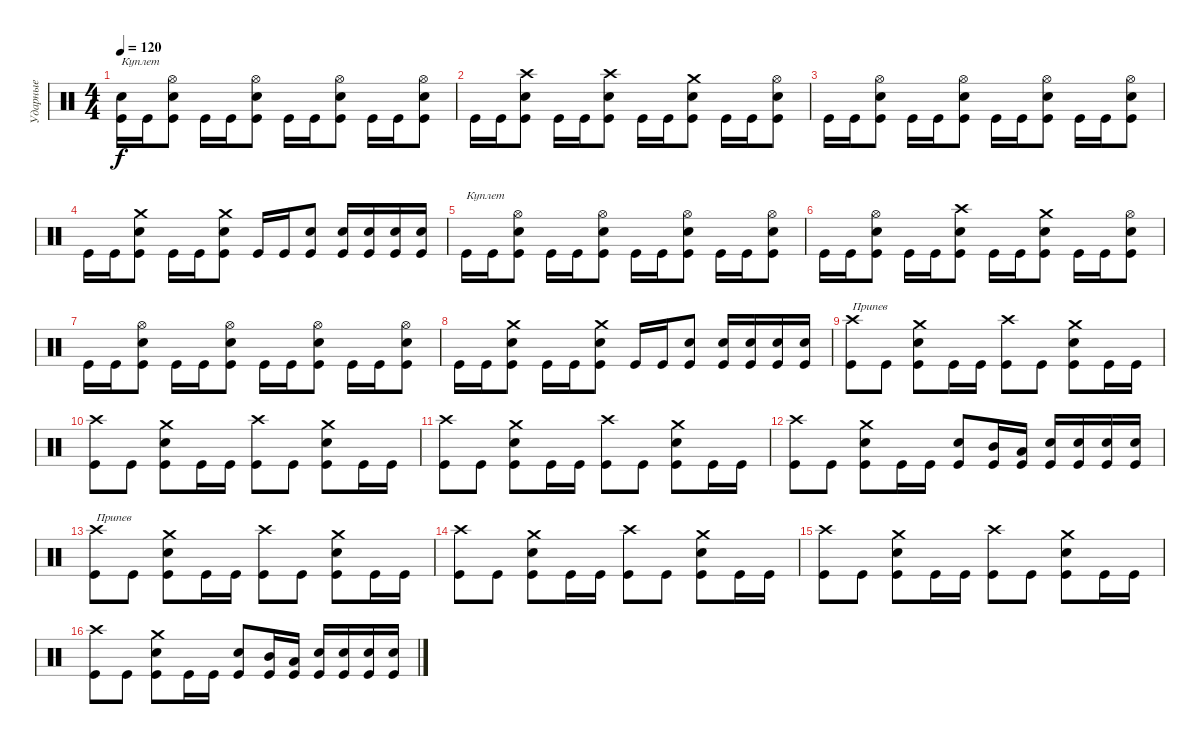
\track ("Ударные" "Ударные") {instrument percussion}
\staff {score}
\articulation defaults
\ts (4 4)
\tempo 120
\clef neutral
\ks c
("Snare (hit) 2" "Kick (hit)").16{txt "Куплет" dy f} "Kick (hit)".16 ("Hi-Hat (open)" "Snare (hit) 2" "Kick (hit)").8 "Kick (hit)".16 "Kick (hit)".16 ("Hi-Hat (open)" "Snare (hit) 2" "Kick (hit)").8 "Kick (hit)".16 "Kick (hit)".16 ("Hi-Hat (open)" "Snare (hit) 2" "Kick (hit)").8 "Kick (hit)".16 "Kick (hit)".16 ("Hi-Hat (open)" "Snare (hit) 2" "Kick (hit)").8 |
"Kick (hit)".16 "Kick (hit)".16 ("Crash high (hit)" "Snare (hit) 2" "Kick (hit)").8 "Kick (hit)".16 "Kick (hit)".16 ("Crash high (hit)" "Snare (hit) 2" "Kick (hit)").8 "Kick (hit)".16 "Kick (hit)".16 ("Crash medium (hit)" "Snare (hit) 2" "Kick (hit)").8 "Kick (hit)".16 "Kick (hit)".16 ("Hi-Hat (open)" "Snare (hit) 2" "Kick (hit)").8 |
"Kick (hit)".16 "Kick (hit)".16 ("Hi-Hat (open)" "Snare (hit) 2" "Kick (hit)").8 "Kick (hit)".16 "Kick (hit)".16 ("Hi-Hat (open)" "Snare (hit) 2" "Kick (hit)").8 "Kick (hit)".16 "Kick (hit)".16 ("Hi-Hat (open)" "Snare (hit) 2" "Kick (hit)").8 "Kick (hit)".16 "Kick (hit)".16 ("Hi-Hat (open)" "Snare (hit) 2" "Kick (hit)").8 |
"Kick (hit)".16 "Kick (hit)".16 ("Crash medium (hit)" "Snare (hit) 2" "Kick (hit)").8 "Kick (hit)".16 "Kick (hit)".16 ("Crash medium (hit)" "Snare (hit) 2" "Kick (hit)").8 "Kick (hit)".16 "Kick (hit)".16 ("Snare (hit) 2" "Kick (hit)").8 ("Snare (hit) 2" "Kick (hit)").16 ("Snare (hit) 2" "Kick (hit)").16 ("Snare (hit) 2" "Kick (hit)").16 ("Snare (hit) 2" "Kick (hit)").16 |
"Kick (hit)".16{txt "Куплет"} "Kick (hit)".16 ("Hi-Hat (open)" "Snare (hit) 2" "Kick (hit)").8 "Kick (hit)".16 "Kick (hit)".16 ("Hi-Hat (open)" "Snare (hit) 2" "Kick (hit)").8 "Kick (hit)".16 "Kick (hit)".16 ("Hi-Hat (open)" "Snare (hit) 2" "Kick (hit)").8 "Kick (hit)".16 "Kick (hit)".16 ("Hi-Hat (open)" "Snare (hit) 2" "Kick (hit)").8 |
"Kick (hit)".16 "Kick (hit)".16 ("Hi-Hat (open)" "Snare (hit) 2" "Kick (hit)").8 "Kick (hit)".16 "Kick (hit)".16 ("Crash high (hit)" "Snare (hit) 2" "Kick (hit)").8 "Kick (hit)".16 "Kick (hit)".16 ("Crash medium (hit)" "Snare (hit) 2" "Kick (hit)").8 "Kick (hit)".16 "Kick (hit)".16 ("Hi-Hat (open)" "Snare (hit) 2" "Kick (hit)").8 |
"Kick (hit)".16 "Kick (hit)".16 ("Hi-Hat (open)" "Snare (hit) 2" "Kick (hit)").8 "Kick (hit)".16 "Kick (hit)".16 ("Hi-Hat (open)" "Snare (hit) 2" "Kick (hit)").8 "Kick (hit)".16 "Kick (hit)".16 ("Hi-Hat (open)" "Snare (hit) 2" "Kick (hit)").8 "Kick (hit)".16 "Kick (hit)".16 ("Hi-Hat (open)" "Snare (hit) 2" "Kick (hit)").8 |
"Kick (hit)".16 "Kick (hit)".16 ("Crash medium (hit)" "Snare (hit) 2" "Kick (hit)").8 "Kick (hit)".16 "Kick (hit)".16 ("Crash medium (hit)" "Snare (hit) 2" "Kick (hit)").8 "Kick (hit)".16 "Kick (hit)".16 ("Snare (hit) 2" "Kick (hit)").8 ("Snare (hit) 2" "Kick (hit)").16 ("Snare (hit) 2" "Kick (hit)").16 ("Snare (hit) 2" "Kick (hit)").16 ("Snare (hit) 2" "Kick (hit)").16 |
("Crash high (hit)" "Kick (hit)").8{txt "Припев"} "Kick (hit)".8 ("Crash medium (hit)" "Snare (hit) 2" "Kick (hit)").8 "Kick (hit)".16 "Kick (hit)".16 ("Crash high (hit)" "Kick (hit)").8 "Kick (hit)".8 ("Crash medium (hit)" "Snare (hit) 2" "Kick (hit)").8 "Kick (hit)".16 "Kick (hit)".16 |
("Crash high (hit)" "Kick (hit)").8 "Kick (hit)".8 ("Crash medium (hit)" "Snare (hit) 2" "Kick (hit)").8 "Kick (hit)".16 "Kick (hit)".16 ("Crash high (hit)" "Kick (hit)").8 "Kick (hit)".8 ("Crash medium (hit)" "Snare (hit) 2" "Kick (hit)").8 "Kick (hit)".16 "Kick (hit)".16 |
("Crash high (hit)" "Kick (hit)").8 "Kick (hit)".8 ("Crash medium (hit)" "Snare (hit) 2" "Kick (hit)").8 "Kick (hit)".16 "Kick (hit)".16 ("Crash high (hit)" "Kick (hit)").8 "Kick (hit)".8 ("Crash medium (hit)" "Snare (hit) 2" "Kick (hit)").8 "Kick (hit)".16 "Kick (hit)".16 |
("Crash high (hit)" "Kick (hit)").8 "Kick (hit)".8 ("Crash medium (hit)" "Snare (hit) 2" "Kick (hit)").8 "Kick (hit)".16 "Kick (hit)".16 ("Snare (hit) 2" "Kick (hit)").8 ("Mid Tom (hit)" "Kick (hit)").16 ("Low Tom (hit)" "Kick (hit)").16 ("Snare (hit) 2" "Kick (hit)").16 ("Snare (hit) 2" "Kick (hit)").16 ("Snare (hit) 2" "Kick (hit)").16 ("Snare (hit) 2" "Kick (hit)").16 |
("Crash high (hit)" "Kick (hit)").8{txt "Припев"} "Kick (hit)".8 ("Crash medium (hit)" "Snare (hit) 2" "Kick (hit)").8 "Kick (hit)".16 "Kick (hit)".16 ("Crash high (hit)" "Kick (hit)").8 "Kick (hit)".8 ("Crash medium (hit)" "Snare (hit) 2" "Kick (hit)").8 "Kick (hit)".16 "Kick (hit)".16 |
("Crash high (hit)" "Kick (hit)").8 "Kick (hit)".8 ("Crash medium (hit)" "Snare (hit) 2" "Kick (hit)").8 "Kick (hit)".16 "Kick (hit)".16 ("Crash high (hit)" "Kick (hit)").8 "Kick (hit)".8 ("Crash medium (hit)" "Snare (hit) 2" "Kick (hit)").8 "Kick (hit)".16 "Kick (hit)".16 |
("Crash high (hit)" "Kick (hit)").8 "Kick (hit)".8 ("Crash medium (hit)" "Snare (hit) 2" "Kick (hit)").8 "Kick (hit)".16 "Kick (hit)".16 ("Crash high (hit)" "Kick (hit)").8 "Kick (hit)".8 ("Crash medium (hit)" "Snare (hit) 2" "Kick (hit)").8 "Kick (hit)".16 "Kick (hit)".16 |
("Crash high (hit)" "Kick (hit)").8 "Kick (hit)".8 ("Crash medium (hit)" "Snare (hit) 2" "Kick (hit)").8 "Kick (hit)".16 "Kick (hit)".16 ("Snare (hit) 2" "Kick (hit)").8 ("Mid Tom (hit)" "Kick (hit)").16 ("Low Tom (hit)" "Kick (hit)").16 ("Snare (hit) 2" "Kick (hit)").16 ("Snare (hit) 2" "Kick (hit)").16 ("Snare (hit) 2" "Kick (hit)").16 ("Snare (hit) 2" "Kick (hit)").16
